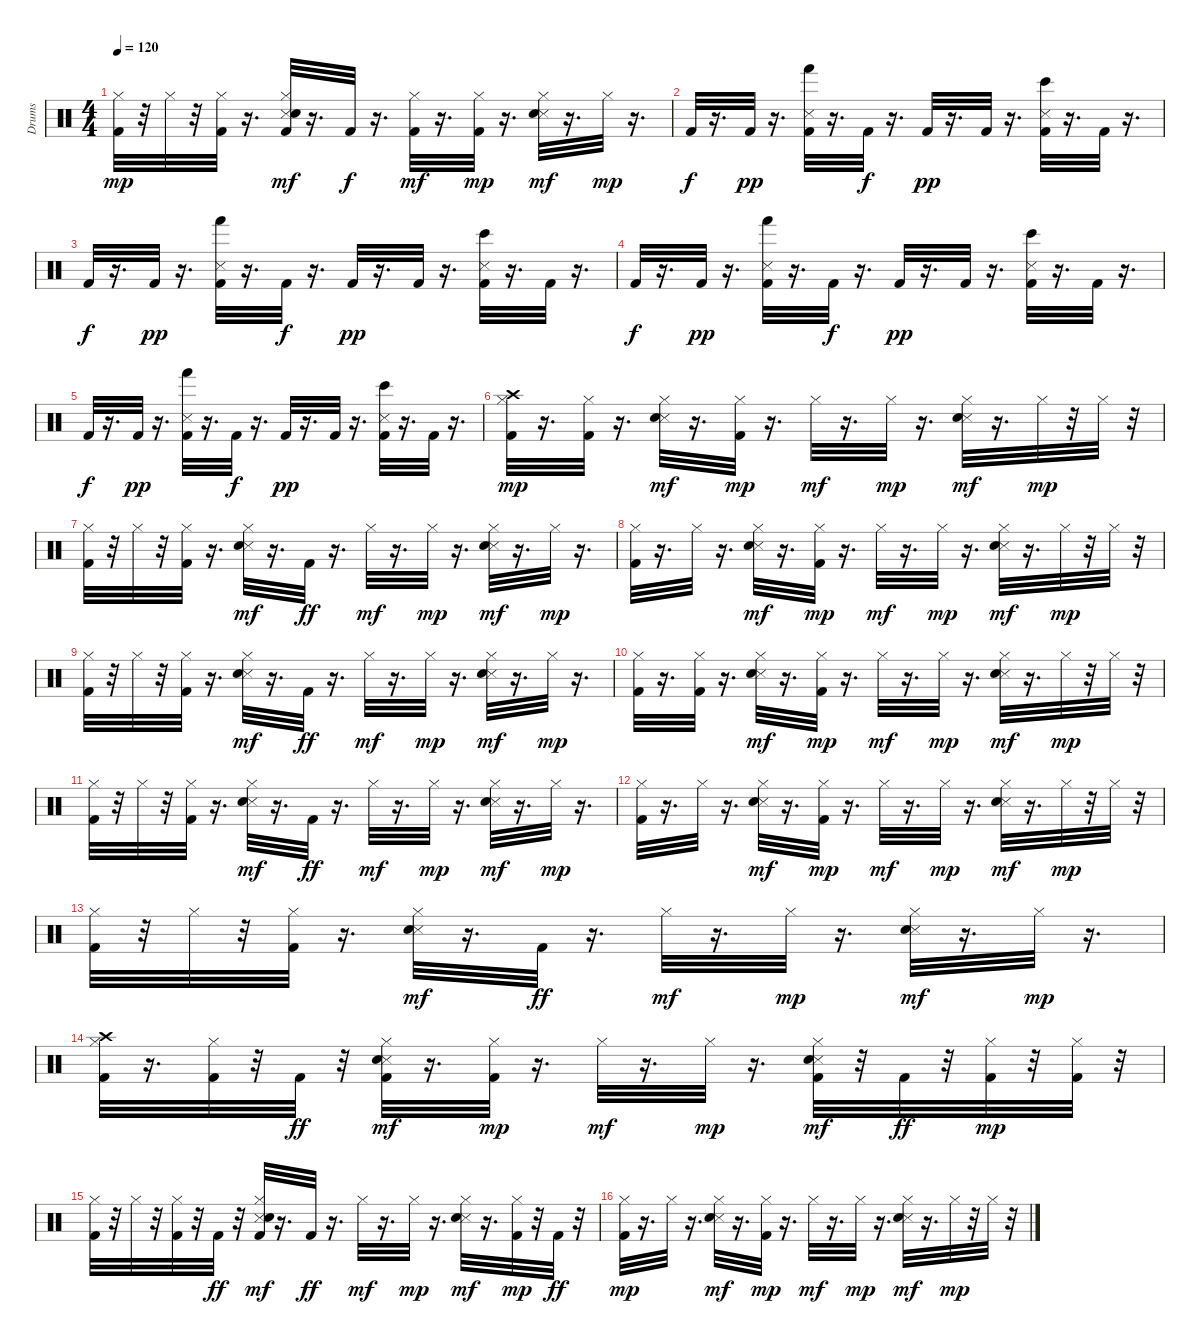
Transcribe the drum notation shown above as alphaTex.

\track ("Drums" "Drums") {instrument percussion}
\staff {score}
\articulation defaults
\ts (4 4)
\tempo 120
\clef neutral
\ks c
("Kick (hit) 2" "Hi-Hat (closed)").32{dy mp} r.32 "Hi-Hat (closed)".32 r.32 ("Kick (hit) 2" "Hi-Hat (closed)").32 r.16{d} ("Metronome (hit)" "Kick (hit) 2" "Snare (hit) 2" "Hi-Hat (closed)").32{dy mf} r.16{d} "Kick (hit) 2".32{dy f} r.16{d} ("Kick (hit) 2" "Hi-Hat (closed)").32{dy mf} r.16{d} ("Kick (hit) 2" "Hi-Hat (closed)").32{dy mp} r.16{d} ("Metronome (hit)" "Snare (hit) 2" "Hi-Hat (closed)").32{dy mf} r.16{d} "Hi-Hat (closed)".32{dy mp} r.16{d} |
"Kick (hit) 2".32{dy f} r.16{d} "Kick (hit) 2".32{dy pp} r.16{d} ("Metronome (hit)" "Kick (hit) 2" "Hand (hit)").32 r.16{d} "Kick (hit) 2".32{dy f} r.16{d} "Kick (hit) 2".32{dy pp} r.16{d} "Kick (hit) 2".32 r.16{d} ("Metronome (hit)" "Kick (hit) 2" "Bongo High (hit)").32 r.16{d} "Kick (hit) 2".32 r.16{d} |
"Kick (hit) 2".32{dy f} r.16{d} "Kick (hit) 2".32{dy pp} r.16{d} ("Metronome (hit)" "Kick (hit) 2" "Hand (hit)").32 r.16{d} "Kick (hit) 2".32{dy f} r.16{d} "Kick (hit) 2".32{dy pp} r.16{d} "Kick (hit) 2".32 r.16{d} ("Metronome (hit)" "Kick (hit) 2" "Bongo High (hit)").32 r.16{d} "Kick (hit) 2".32 r.16{d} |
"Kick (hit) 2".32{dy f} r.16{d} "Kick (hit) 2".32{dy pp} r.16{d} ("Metronome (hit)" "Kick (hit) 2" "Hand (hit)").32 r.16{d} "Kick (hit) 2".32{dy f} r.16{d} "Kick (hit) 2".32{dy pp} r.16{d} "Kick (hit) 2".32 r.16{d} ("Metronome (hit)" "Kick (hit) 2" "Bongo High (hit)").32 r.16{d} "Kick (hit) 2".32 r.16{d} |
"Kick (hit) 2".32{dy f} r.16{d} "Kick (hit) 2".32{dy pp} r.16{d} ("Metronome (hit)" "Kick (hit) 2" "Hand (hit)").32 r.16{d} "Kick (hit) 2".32{dy f} r.16{d} "Kick (hit) 2".32{dy pp} r.16{d} "Kick (hit) 2".32 r.16{d} ("Metronome (hit)" "Kick (hit) 2" "Bongo High (hit)").32 r.16{d} "Kick (hit) 2".32 r.16{d} |
("Kick (hit) 2" "Hi-Hat (closed)" "Crash high (hit)").32{dy mp} r.16{d} ("Kick (hit) 2" "Hi-Hat (closed)").32 r.16{d} ("Metronome (hit)" "Snare (hit) 2" "Hi-Hat (closed)").32{dy mf} r.16{d} ("Kick (hit) 2" "Hi-Hat (closed)").32{dy mp} r.16{d} "Hi-Hat (closed)".32{dy mf} r.16{d} "Hi-Hat (closed)".32{dy mp} r.16{d} ("Metronome (hit)" "Snare (hit) 2" "Hi-Hat (closed)").32{dy mf} r.16{d} "Hi-Hat (closed)".32{dy mp} r.32 "Hi-Hat (closed)".32 r.32 |
("Kick (hit) 2" "Hi-Hat (closed)").32 r.32 "Hi-Hat (closed)".32 r.32 ("Kick (hit) 2" "Hi-Hat (closed)").32 r.16{d} ("Metronome (hit)" "Snare (hit) 2" "Hi-Hat (closed)").32{dy mf} r.16{d} "Kick (hit) 2".32{dy ff} r.16{d} "Hi-Hat (closed)".32{dy mf} r.16{d} "Hi-Hat (closed)".32{dy mp} r.16{d} ("Metronome (hit)" "Snare (hit) 2" "Hi-Hat (closed)").32{dy mf} r.16{d} "Hi-Hat (closed)".32{dy mp} r.16{d} |
("Kick (hit) 2" "Hi-Hat (closed)").32 r.16{d} "Hi-Hat (closed)".32 r.16{d} ("Metronome (hit)" "Snare (hit) 2" "Hi-Hat (closed)").32{dy mf} r.16{d} ("Kick (hit) 2" "Hi-Hat (closed)").32{dy mp} r.16{d} "Hi-Hat (closed)".32{dy mf} r.16{d} "Hi-Hat (closed)".32{dy mp} r.16{d} ("Metronome (hit)" "Snare (hit) 2" "Hi-Hat (closed)").32{dy mf} r.16{d} "Hi-Hat (closed)".32{dy mp} r.32 "Hi-Hat (closed)".32 r.32 |
("Kick (hit) 2" "Hi-Hat (closed)").32 r.32 "Hi-Hat (closed)".32 r.32 ("Kick (hit) 2" "Hi-Hat (closed)").32 r.16{d} ("Metronome (hit)" "Snare (hit) 2" "Hi-Hat (closed)").32{dy mf} r.16{d} "Kick (hit) 2".32{dy ff} r.16{d} "Hi-Hat (closed)".32{dy mf} r.16{d} "Hi-Hat (closed)".32{dy mp} r.16{d} ("Metronome (hit)" "Snare (hit) 2" "Hi-Hat (closed)").32{dy mf} r.16{d} "Hi-Hat (closed)".32{dy mp} r.16{d} |
("Kick (hit) 2" "Hi-Hat (closed)").32 r.16{d} ("Kick (hit) 2" "Hi-Hat (closed)").32 r.16{d} ("Metronome (hit)" "Snare (hit) 2" "Hi-Hat (closed)").32{dy mf} r.16{d} ("Kick (hit) 2" "Hi-Hat (closed)").32{dy mp} r.16{d} "Hi-Hat (closed)".32{dy mf} r.16{d} "Hi-Hat (closed)".32{dy mp} r.16{d} ("Metronome (hit)" "Snare (hit) 2" "Hi-Hat (closed)").32{dy mf} r.16{d} "Hi-Hat (closed)".32{dy mp} r.32 "Hi-Hat (closed)".32 r.32 |
("Kick (hit) 2" "Hi-Hat (closed)").32 r.32 "Hi-Hat (closed)".32 r.32 ("Kick (hit) 2" "Hi-Hat (closed)").32 r.16{d} ("Metronome (hit)" "Snare (hit) 2" "Hi-Hat (closed)").32{dy mf} r.16{d} "Kick (hit) 2".32{dy ff} r.16{d} "Hi-Hat (closed)".32{dy mf} r.16{d} "Hi-Hat (closed)".32{dy mp} r.16{d} ("Metronome (hit)" "Snare (hit) 2" "Hi-Hat (closed)").32{dy mf} r.16{d} "Hi-Hat (closed)".32{dy mp} r.16{d} |
("Kick (hit) 2" "Hi-Hat (closed)").32 r.16{d} "Hi-Hat (closed)".32 r.16{d} ("Metronome (hit)" "Snare (hit) 2" "Hi-Hat (closed)").32{dy mf} r.16{d} ("Kick (hit) 2" "Hi-Hat (closed)").32{dy mp} r.16{d} "Hi-Hat (closed)".32{dy mf} r.16{d} "Hi-Hat (closed)".32{dy mp} r.16{d} ("Metronome (hit)" "Snare (hit) 2" "Hi-Hat (closed)").32{dy mf} r.16{d} "Hi-Hat (closed)".32{dy mp} r.32 "Hi-Hat (closed)".32 r.32 |
("Kick (hit) 2" "Hi-Hat (closed)").32 r.32 "Hi-Hat (closed)".32 r.32 ("Kick (hit) 2" "Hi-Hat (closed)").32 r.16{d} ("Metronome (hit)" "Snare (hit) 2" "Hi-Hat (closed)").32{dy mf} r.16{d} "Kick (hit) 2".32{dy ff} r.16{d} "Hi-Hat (closed)".32{dy mf} r.16{d} "Hi-Hat (closed)".32{dy mp} r.16{d} ("Metronome (hit)" "Snare (hit) 2" "Hi-Hat (closed)").32{dy mf} r.16{d} "Hi-Hat (closed)".32{dy mp} r.16{d} |
("Kick (hit) 2" "Hi-Hat (closed)" "Crash high (hit)").32 r.16{d} ("Kick (hit) 2" "Hi-Hat (closed)").32 r.32 "Kick (hit) 2".32{dy ff} r.32 ("Metronome (hit)" "Kick (hit) 2" "Snare (hit) 2" "Hi-Hat (closed)").32{dy mf} r.16{d} ("Kick (hit) 2" "Hi-Hat (closed)").32{dy mp} r.16{d} "Hi-Hat (closed)".32{dy mf} r.16{d} "Hi-Hat (closed)".32{dy mp} r.16{d} ("Metronome (hit)" "Kick (hit) 2" "Snare (hit) 2" "Hi-Hat (closed)").32{dy mf} r.32 "Kick (hit) 2".32{dy ff} r.32 ("Kick (hit) 2" "Hi-Hat (closed)").32{dy mp} r.32 ("Kick (hit) 2" "Hi-Hat (closed)").32 r.32 |
("Kick (hit) 2" "Hi-Hat (closed)").32 r.32 "Hi-Hat (closed)".32 r.32 ("Kick (hit) 2" "Hi-Hat (closed)").32 r.32 "Kick (hit) 2".32{dy ff} r.32 ("Metronome (hit)" "Kick (hit) 2" "Snare (hit) 2" "Hi-Hat (closed)").32{dy mf} r.16{d} "Kick (hit) 2".32{dy ff} r.16{d} "Hi-Hat (closed)".32{dy mf} r.16{d} "Hi-Hat (closed)".32{dy mp} r.16{d} ("Metronome (hit)" "Snare (hit) 2" "Hi-Hat (closed)").32{dy mf} r.16{d} ("Kick (hit) 2" "Hi-Hat (closed)").32{dy mp} r.32 "Kick (hit) 2".32{dy ff} r.32 |
("Kick (hit) 2" "Hi-Hat (closed)").32{dy mp} r.16{d} "Hi-Hat (closed)".32 r.16{d} ("Metronome (hit)" "Snare (hit) 2" "Hi-Hat (closed)").32{dy mf} r.16{d} ("Kick (hit) 2" "Hi-Hat (closed)").32{dy mp} r.16{d} "Hi-Hat (closed)".32{dy mf} r.16{d} "Hi-Hat (closed)".32{dy mp} r.16{d} ("Metronome (hit)" "Snare (hit) 2" "Hi-Hat (closed)").32{dy mf} r.16{d} "Hi-Hat (closed)".32{dy mp} r.32 "Hi-Hat (closed)".32 r.32
